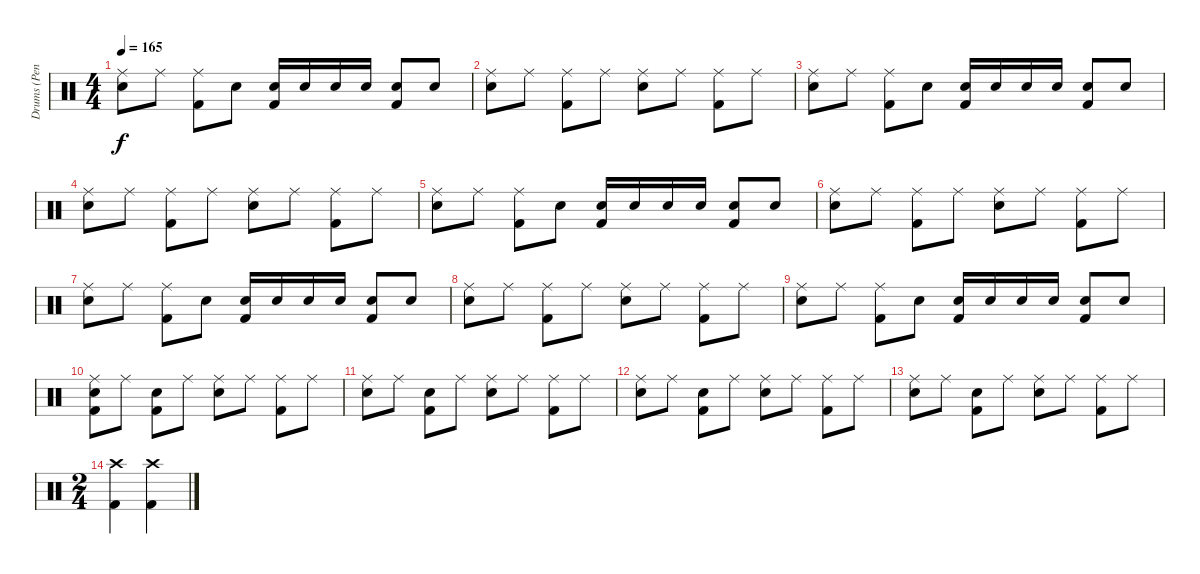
\track ("Drums (Penny Rimbaud)" "Drums (Pen") {instrument percussion}
\staff {score}
\articulation defaults
\ts (4 4)
\tempo 165
\clef neutral
\ks c
("Ride (middle)" "Electric Snare (hit)").8{dy f} "Ride (middle)".8 ("Ride (middle)" "Kick (hit) 2").8 "Electric Snare (hit)".8 ("Electric Snare (hit)" "Kick (hit) 2").16 "Electric Snare (hit)".16 "Electric Snare (hit)".16 "Electric Snare (hit)".16 ("Electric Snare (hit)" "Kick (hit) 2").8 "Electric Snare (hit)".8 |
("Ride (middle)" "Electric Snare (hit)").8 "Ride (middle)".8 ("Ride (middle)" "Kick (hit) 2").8 "Ride (middle)".8 ("Ride (middle)" "Electric Snare (hit)").8 "Ride (middle)".8 ("Ride (middle)" "Kick (hit) 2").8 "Ride (middle)".8 |
("Ride (middle)" "Electric Snare (hit)").8 "Ride (middle)".8 ("Ride (middle)" "Kick (hit) 2").8 "Electric Snare (hit)".8 ("Electric Snare (hit)" "Kick (hit) 2").16 "Electric Snare (hit)".16 "Electric Snare (hit)".16 "Electric Snare (hit)".16 ("Electric Snare (hit)" "Kick (hit) 2").8 "Electric Snare (hit)".8 |
("Ride (middle)" "Electric Snare (hit)").8 "Ride (middle)".8 ("Ride (middle)" "Kick (hit) 2").8 "Ride (middle)".8 ("Ride (middle)" "Electric Snare (hit)").8 "Ride (middle)".8 ("Ride (middle)" "Kick (hit) 2").8 "Ride (middle)".8 |
("Ride (middle)" "Electric Snare (hit)").8 "Ride (middle)".8 ("Ride (middle)" "Kick (hit) 2").8 "Electric Snare (hit)".8 ("Electric Snare (hit)" "Kick (hit) 2").16 "Electric Snare (hit)".16 "Electric Snare (hit)".16 "Electric Snare (hit)".16 ("Electric Snare (hit)" "Kick (hit) 2").8 "Electric Snare (hit)".8 |
("Ride (middle)" "Electric Snare (hit)").8 "Ride (middle)".8 ("Ride (middle)" "Kick (hit) 2").8 "Ride (middle)".8 ("Ride (middle)" "Electric Snare (hit)").8 "Ride (middle)".8 ("Ride (middle)" "Kick (hit) 2").8 "Ride (middle)".8 |
("Ride (middle)" "Electric Snare (hit)").8 "Ride (middle)".8 ("Ride (middle)" "Kick (hit) 2").8 "Electric Snare (hit)".8 ("Electric Snare (hit)" "Kick (hit) 2").16 "Electric Snare (hit)".16 "Electric Snare (hit)".16 "Electric Snare (hit)".16 ("Electric Snare (hit)" "Kick (hit) 2").8 "Electric Snare (hit)".8 |
("Ride (middle)" "Electric Snare (hit)").8 "Ride (middle)".8 ("Ride (middle)" "Kick (hit) 2").8 "Ride (middle)".8 ("Ride (middle)" "Electric Snare (hit)").8 "Ride (middle)".8 ("Ride (middle)" "Kick (hit) 2").8 "Ride (middle)".8 |
("Ride (middle)" "Electric Snare (hit)").8 "Ride (middle)".8 ("Ride (middle)" "Kick (hit) 2").8 "Electric Snare (hit)".8 ("Electric Snare (hit)" "Kick (hit) 2").16 "Electric Snare (hit)".16 "Electric Snare (hit)".16 "Electric Snare (hit)".16 ("Electric Snare (hit)" "Kick (hit) 2").8 "Electric Snare (hit)".8 |
("Ride (middle)" "Electric Snare (hit)" "Kick (hit) 2").8 "Ride (middle)".8 ("Snare (hit)" "Kick (hit) 2").8 "Ride (middle)".8 ("Ride (middle)" "Electric Snare (hit)").8 "Ride (middle)".8 ("Ride (middle)" "Kick (hit) 2").8 "Ride (middle)".8 |
("Ride (middle)" "Electric Snare (hit)").8 "Ride (middle)".8 ("Snare (hit)" "Kick (hit) 2").8 "Ride (middle)".8 ("Ride (middle)" "Electric Snare (hit)").8 "Ride (middle)".8 ("Ride (middle)" "Kick (hit) 2").8 "Ride (middle)".8 |
("Ride (middle)" "Electric Snare (hit)").8 "Ride (middle)".8 ("Snare (hit)" "Kick (hit) 2").8 "Ride (middle)".8 ("Ride (middle)" "Electric Snare (hit)").8 "Ride (middle)".8 ("Ride (middle)" "Kick (hit) 2").8 "Ride (middle)".8 |
("Ride (middle)" "Electric Snare (hit)").8 "Ride (middle)".8 ("Snare (hit)" "Kick (hit) 2").8 "Ride (middle)".8 ("Ride (middle)" "Electric Snare (hit)").8 "Ride (middle)".8 ("Ride (middle)" "Kick (hit) 2").8 "Ride (middle)".8 |
\ts (2 4)
("Crash high (hit)" "Kick (hit) 2").4 ("Crash high (hit)" "Kick (hit) 2").4
